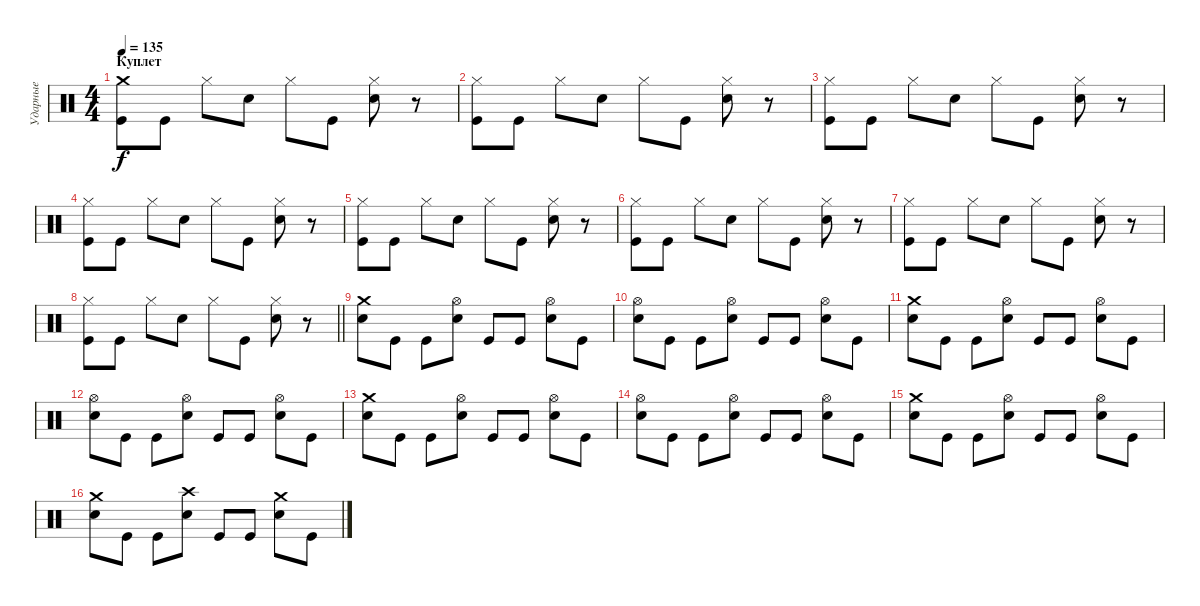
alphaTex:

\track ("Ударные" "Ударные") {instrument percussion}
\staff {score}
\articulation defaults
\ts (4 4)
\section ("" "Куплет")
\tempo 135
\clef neutral
\ks c
("Crash medium (hit)" "Kick (hit)").8{dy f} "Kick (hit)".8 "Hi-Hat (closed)".8 "Electric Snare (hit)".8 "Hi-Hat (closed)".8 "Kick (hit)".8 ("Hi-Hat (closed)" "Electric Snare (hit)").8 r.8 |
("Hi-Hat (closed)" "Kick (hit)").8 "Kick (hit)".8 "Hi-Hat (closed)".8 "Electric Snare (hit)".8 "Hi-Hat (closed)".8 "Kick (hit)".8 ("Hi-Hat (closed)" "Electric Snare (hit)").8 r.8 |
("Hi-Hat (closed)" "Kick (hit)").8 "Kick (hit)".8 "Hi-Hat (closed)".8 "Electric Snare (hit)".8 "Hi-Hat (closed)".8 "Kick (hit)".8 ("Hi-Hat (closed)" "Electric Snare (hit)").8 r.8 |
("Hi-Hat (closed)" "Kick (hit)").8 "Kick (hit)".8 "Hi-Hat (closed)".8 "Electric Snare (hit)".8 "Hi-Hat (closed)".8 "Kick (hit)".8 ("Hi-Hat (closed)" "Electric Snare (hit)").8 r.8 |
("Hi-Hat (closed)" "Kick (hit)").8 "Kick (hit)".8 "Hi-Hat (closed)".8 "Electric Snare (hit)".8 "Hi-Hat (closed)".8 "Kick (hit)".8 ("Hi-Hat (closed)" "Electric Snare (hit)").8 r.8 |
("Hi-Hat (closed)" "Kick (hit)").8 "Kick (hit)".8 "Hi-Hat (closed)".8 "Electric Snare (hit)".8 "Hi-Hat (closed)".8 "Kick (hit)".8 ("Hi-Hat (closed)" "Electric Snare (hit)").8 r.8 |
("Hi-Hat (closed)" "Kick (hit)").8 "Kick (hit)".8 "Hi-Hat (closed)".8 "Electric Snare (hit)".8 "Hi-Hat (closed)".8 "Kick (hit)".8 ("Hi-Hat (closed)" "Electric Snare (hit)").8 r.8 |
\barLineRight lightlight
("Hi-Hat (closed)" "Kick (hit)").8 "Kick (hit)".8 "Hi-Hat (closed)".8 "Electric Snare (hit)".8 "Hi-Hat (closed)".8 "Kick (hit)".8 ("Hi-Hat (closed)" "Electric Snare (hit)").8 r.8 |
\section ("" " ")
("Crash medium (hit)" "Electric Snare (hit)").8 "Kick (hit)".8 "Kick (hit)".8 ("Hi-Hat (open)" "Electric Snare (hit)").8 "Kick (hit)".8 "Kick (hit)".8 ("Hi-Hat (open)" "Electric Snare (hit)").8 "Kick (hit)".8 |
("Hi-Hat (open)" "Electric Snare (hit)").8 "Kick (hit)".8 "Kick (hit)".8 ("Hi-Hat (open)" "Electric Snare (hit)").8 "Kick (hit)".8 "Kick (hit)".8 ("Hi-Hat (open)" "Electric Snare (hit)").8 "Kick (hit)".8 |
("Crash medium (hit)" "Electric Snare (hit)").8 "Kick (hit)".8 "Kick (hit)".8 ("Hi-Hat (open)" "Electric Snare (hit)").8 "Kick (hit)".8 "Kick (hit)".8 ("Hi-Hat (open)" "Electric Snare (hit)").8 "Kick (hit)".8 |
("Hi-Hat (open)" "Electric Snare (hit)").8 "Kick (hit)".8 "Kick (hit)".8 ("Hi-Hat (open)" "Electric Snare (hit)").8 "Kick (hit)".8 "Kick (hit)".8 ("Hi-Hat (open)" "Electric Snare (hit)").8 "Kick (hit)".8 |
("Crash medium (hit)" "Electric Snare (hit)").8 "Kick (hit)".8 "Kick (hit)".8 ("Hi-Hat (open)" "Electric Snare (hit)").8 "Kick (hit)".8 "Kick (hit)".8 ("Hi-Hat (open)" "Electric Snare (hit)").8 "Kick (hit)".8 |
("Hi-Hat (open)" "Electric Snare (hit)").8 "Kick (hit)".8 "Kick (hit)".8 ("Hi-Hat (open)" "Electric Snare (hit)").8 "Kick (hit)".8 "Kick (hit)".8 ("Hi-Hat (open)" "Electric Snare (hit)").8 "Kick (hit)".8 |
("Crash medium (hit)" "Electric Snare (hit)").8 "Kick (hit)".8 "Kick (hit)".8 ("Hi-Hat (open)" "Electric Snare (hit)").8 "Kick (hit)".8 "Kick (hit)".8 ("Hi-Hat (open)" "Electric Snare (hit)").8 "Kick (hit)".8 |
("Crash medium (hit)" "Electric Snare (hit)").8 "Kick (hit)".8 "Kick (hit)".8 ("Crash high (hit)" "Electric Snare (hit)").8 "Kick (hit)".8 "Kick (hit)".8 ("Crash medium (hit)" "Electric Snare (hit)").8 "Kick (hit)".8
